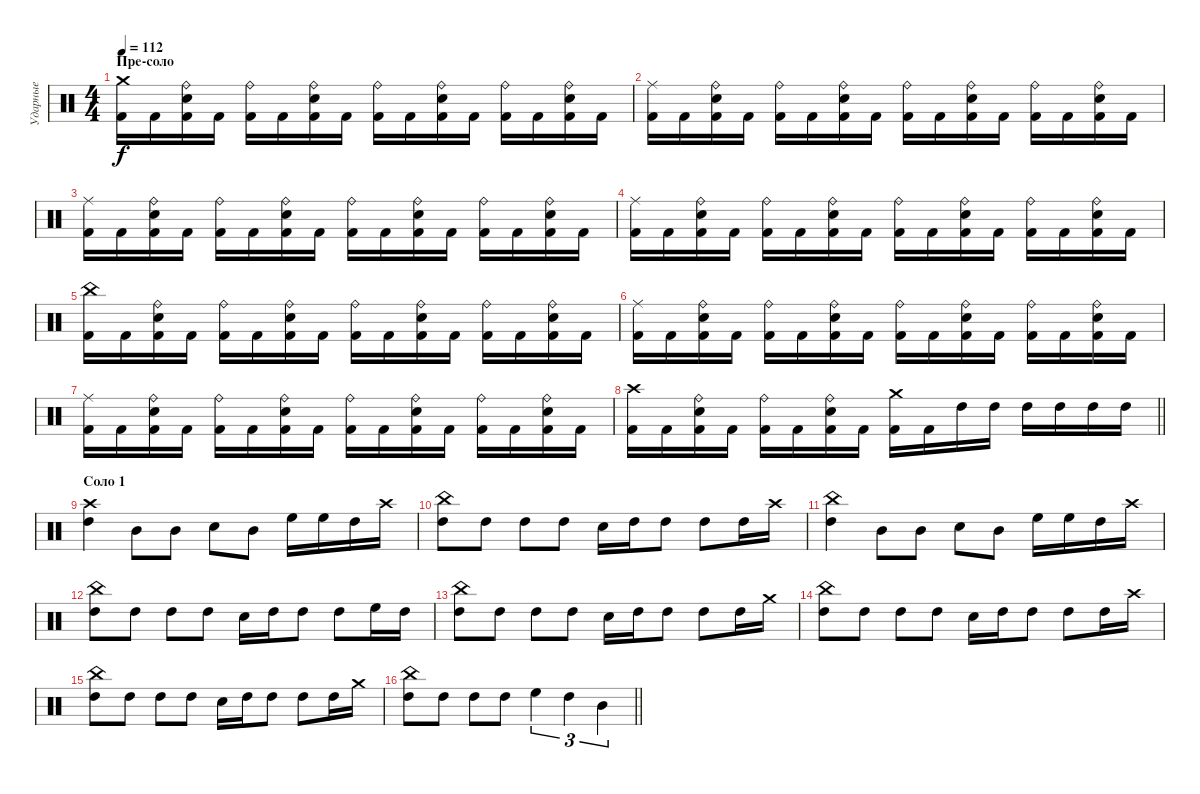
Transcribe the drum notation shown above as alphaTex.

\track ("Ударные" "Ударные") {instrument percussion}
\staff {score}
\articulation defaults
\ts (4 4)
\section ("" "Пре-соло")
\tempo 112
\clef neutral
\ks aminor
("Kick (hit) 2" "Crash medium (hit)").16{dy f} "Kick (hit) 2".16 ("Electric Snare (hit)" "Ride (bell)" "Kick (hit) 2").16 "Kick (hit) 2".16 ("Kick (hit) 2" "Ride (bell)").16 "Kick (hit) 2".16 ("Kick (hit) 2" "Electric Snare (hit)" "Ride (bell)").16 "Kick (hit) 2".16 ("Kick (hit) 2" "Ride (bell)").16 "Kick (hit) 2".16 ("Kick (hit) 2" "Electric Snare (hit)" "Ride (bell)").16 "Kick (hit) 2".16 ("Kick (hit) 2" "Ride (bell)").16 "Kick (hit) 2".16 ("Kick (hit) 2" "Ride (bell)" "Electric Snare (hit)").16 "Kick (hit) 2".16 |
("Kick (hit) 2" "Ride (middle)").16 "Kick (hit) 2".16 ("Electric Snare (hit)" "Ride (bell)" "Kick (hit) 2").16 "Kick (hit) 2".16 ("Kick (hit) 2" "Ride (bell)").16 "Kick (hit) 2".16 ("Kick (hit) 2" "Electric Snare (hit)" "Ride (bell)").16 "Kick (hit) 2".16 ("Kick (hit) 2" "Ride (bell)").16 "Kick (hit) 2".16 ("Kick (hit) 2" "Electric Snare (hit)" "Ride (bell)").16 "Kick (hit) 2".16 ("Kick (hit) 2" "Ride (bell)").16 "Kick (hit) 2".16 ("Kick (hit) 2" "Ride (bell)" "Electric Snare (hit)").16 "Kick (hit) 2".16 |
("Kick (hit) 2" "Ride (middle)").16 "Kick (hit) 2".16 ("Electric Snare (hit)" "Ride (bell)" "Kick (hit) 2").16 "Kick (hit) 2".16 ("Kick (hit) 2" "Ride (bell)").16 "Kick (hit) 2".16 ("Kick (hit) 2" "Electric Snare (hit)" "Ride (bell)").16 "Kick (hit) 2".16 ("Kick (hit) 2" "Ride (bell)").16 "Kick (hit) 2".16 ("Kick (hit) 2" "Electric Snare (hit)" "Ride (bell)").16 "Kick (hit) 2".16 ("Kick (hit) 2" "Ride (bell)").16 "Kick (hit) 2".16 ("Kick (hit) 2" "Ride (bell)" "Electric Snare (hit)").16 "Kick (hit) 2".16 |
("Kick (hit) 2" "Ride (middle)").16 "Kick (hit) 2".16 ("Electric Snare (hit)" "Ride (bell)" "Kick (hit) 2").16 "Kick (hit) 2".16 ("Kick (hit) 2" "Ride (bell)").16 "Kick (hit) 2".16 ("Kick (hit) 2" "Electric Snare (hit)" "Ride (bell)").16 "Kick (hit) 2".16 ("Kick (hit) 2" "Ride (bell)").16 "Kick (hit) 2".16 ("Kick (hit) 2" "Electric Snare (hit)" "Ride (bell)").16 "Kick (hit) 2".16 ("Kick (hit) 2" "Ride (bell)").16 "Kick (hit) 2".16 ("Kick (hit) 2" "Ride (bell)" "Electric Snare (hit)").16 "Kick (hit) 2".16 |
("Kick (hit) 2" "China (hit)").16 "Kick (hit) 2".16 ("Electric Snare (hit)" "Ride (bell)" "Kick (hit) 2").16 "Kick (hit) 2".16 ("Kick (hit) 2" "Ride (bell)").16 "Kick (hit) 2".16 ("Kick (hit) 2" "Electric Snare (hit)" "Ride (bell)").16 "Kick (hit) 2".16 ("Kick (hit) 2" "Ride (bell)").16 "Kick (hit) 2".16 ("Kick (hit) 2" "Electric Snare (hit)" "Ride (bell)").16 "Kick (hit) 2".16 ("Kick (hit) 2" "Ride (bell)").16 "Kick (hit) 2".16 ("Kick (hit) 2" "Ride (bell)" "Electric Snare (hit)").16 "Kick (hit) 2".16 |
("Kick (hit) 2" "Ride (middle)").16 "Kick (hit) 2".16 ("Electric Snare (hit)" "Ride (bell)" "Kick (hit) 2").16 "Kick (hit) 2".16 ("Kick (hit) 2" "Ride (bell)").16 "Kick (hit) 2".16 ("Kick (hit) 2" "Electric Snare (hit)" "Ride (bell)").16 "Kick (hit) 2".16 ("Kick (hit) 2" "Ride (bell)").16 "Kick (hit) 2".16 ("Kick (hit) 2" "Electric Snare (hit)" "Ride (bell)").16 "Kick (hit) 2".16 ("Kick (hit) 2" "Ride (bell)").16 "Kick (hit) 2".16 ("Kick (hit) 2" "Ride (bell)" "Electric Snare (hit)").16 "Kick (hit) 2".16 |
("Kick (hit) 2" "Ride (middle)").16 "Kick (hit) 2".16 ("Electric Snare (hit)" "Ride (bell)" "Kick (hit) 2").16 "Kick (hit) 2".16 ("Kick (hit) 2" "Ride (bell)").16 "Kick (hit) 2".16 ("Kick (hit) 2" "Electric Snare (hit)" "Ride (bell)").16 "Kick (hit) 2".16 ("Kick (hit) 2" "Ride (bell)").16 "Kick (hit) 2".16 ("Kick (hit) 2" "Electric Snare (hit)" "Ride (bell)").16 "Kick (hit) 2".16 ("Kick (hit) 2" "Ride (bell)").16 "Kick (hit) 2".16 ("Kick (hit) 2" "Ride (bell)" "Electric Snare (hit)").16 "Kick (hit) 2".16 |
\barLineRight lightlight
("Kick (hit) 2" "Crash high (hit)").16 "Kick (hit) 2".16 ("Electric Snare (hit)" "Ride (bell)" "Kick (hit) 2").16 "Kick (hit) 2".16 ("Kick (hit) 2" "Ride (bell)").16 "Kick (hit) 2".16 ("Kick (hit) 2" "Electric Snare (hit)" "Ride (bell)").16 "Kick (hit) 2".16 ("Kick (hit) 2" "Crash medium (hit)").16 "Kick (hit) 2".16 "High Tom (hit)".16 "High Tom (hit)".16 "High Tom (hit)".16 "High Tom (hit)".16 "High Tom (hit)".16 "High Tom (hit)".16 |
\section ("" "Соло 1")
("High Tom (hit)" "Crash high (hit)").4 "Mid Tom (hit)".8 "Mid Tom (hit)".8 "Electric Snare (hit)".8 "Mid Tom (hit)".8 "High Floor Tom (hit)".16 "High Floor Tom (hit)".16 "High Tom (hit)".16 "Crash high (hit)".16 |
("China (hit)" "High Tom (hit)").8 "High Tom (hit)".8 "High Tom (hit)".8 "High Tom (hit)".8 "Electric Snare (hit)".16 "High Tom (hit)".16 "High Tom (hit)".8 "High Tom (hit)".8 "High Tom (hit)".16 "Crash high (hit)".16 |
("High Tom (hit)" "China (hit)").4 "Mid Tom (hit)".8 "Mid Tom (hit)".8 "Electric Snare (hit)".8 "Mid Tom (hit)".8 "High Floor Tom (hit)".16 "High Floor Tom (hit)".16 "High Tom (hit)".16 "Crash high (hit)".16 |
("China (hit)" "High Tom (hit)").8 "High Tom (hit)".8 "High Tom (hit)".8 "High Tom (hit)".8 "Electric Snare (hit)".16 "High Tom (hit)".16 "High Tom (hit)".8 "High Tom (hit)".8 "High Floor Tom (hit)".16 "High Tom (hit)".16 |
("China (hit)" "High Tom (hit)").8 "High Tom (hit)".8 "High Tom (hit)".8 "High Tom (hit)".8 "Electric Snare (hit)".16 "High Tom (hit)".16 "High Tom (hit)".8 "High Tom (hit)".8 "High Tom (hit)".16 "Crash medium (hit)".16 |
("China (hit)" "High Tom (hit)").8 "High Tom (hit)".8 "High Tom (hit)".8 "High Tom (hit)".8 "Electric Snare (hit)".16 "High Tom (hit)".16 "High Tom (hit)".8 "High Tom (hit)".8 "High Tom (hit)".16 "Crash high (hit)".16 |
("China (hit)" "High Tom (hit)").8 "High Tom (hit)".8 "High Tom (hit)".8 "High Tom (hit)".8 "Electric Snare (hit)".16 "High Tom (hit)".16 "High Tom (hit)".8 "High Tom (hit)".8 "High Tom (hit)".16 "Crash medium (hit)".16 |
\barLineRight lightlight
("China (hit)" "High Tom (hit)").8 "High Tom (hit)".8 "High Tom (hit)".8 "High Tom (hit)".8 "High Floor Tom (hit)".4{tu (3 2)} "High Tom (hit)".4{tu (3 2)} "Mid Tom (hit)".4{tu (3 2)}
